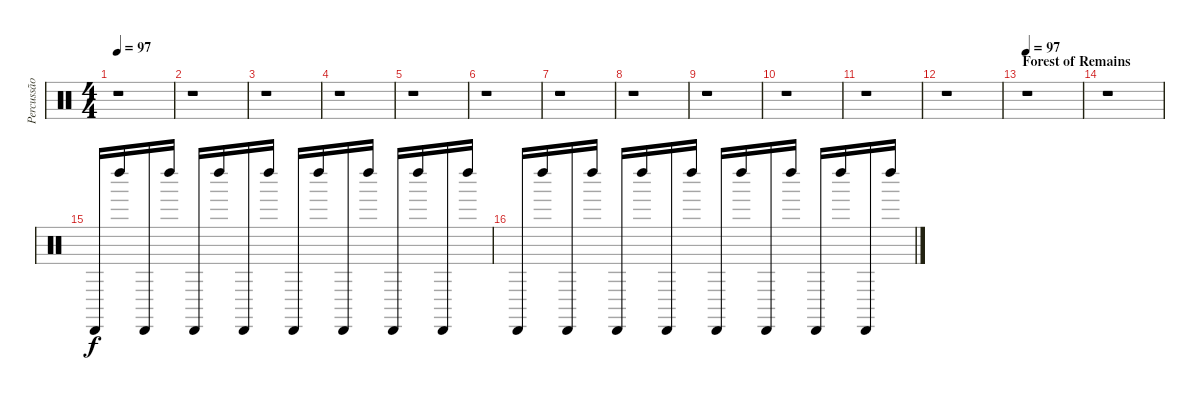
\track ("Percussão" "Percussão") {instrument percussion}
\staff {score}
\articulation defaults
\ts (4 4)
\tempo 97
\clef neutral
\ks c
r.1{dy f} |
r.1 |
r.1 |
r.1 |
r.1 |
r.1 |
r.1 |
r.1 |
r.1 |
r.1 |
r.1 |
r.1 |
\section ("" "Forest of Remains")
\tempo 97
r.1 |
r.1 |
"Cabasa (hit)".16 "Left Maraca (hit)".16 "Cabasa (hit)".16 "Left Maraca (hit)".16 "Cabasa (hit)".16 "Left Maraca (hit)".16 "Cabasa (hit)".16 "Left Maraca (hit)".16 "Cabasa (hit)".16 "Left Maraca (hit)".16 "Cabasa (hit)".16 "Left Maraca (hit)".16 "Cabasa (hit)".16 "Left Maraca (hit)".16 "Cabasa (hit)".16 "Left Maraca (hit)".16 |
"Cabasa (hit)".16 "Left Maraca (hit)".16 "Cabasa (hit)".16 "Left Maraca (hit)".16 "Cabasa (hit)".16 "Left Maraca (hit)".16 "Cabasa (hit)".16 "Left Maraca (hit)".16 "Cabasa (hit)".16 "Left Maraca (hit)".16 "Cabasa (hit)".16 "Left Maraca (hit)".16 "Cabasa (hit)".16 "Left Maraca (hit)".16 "Cabasa (hit)".16 "Left Maraca (hit)".16
